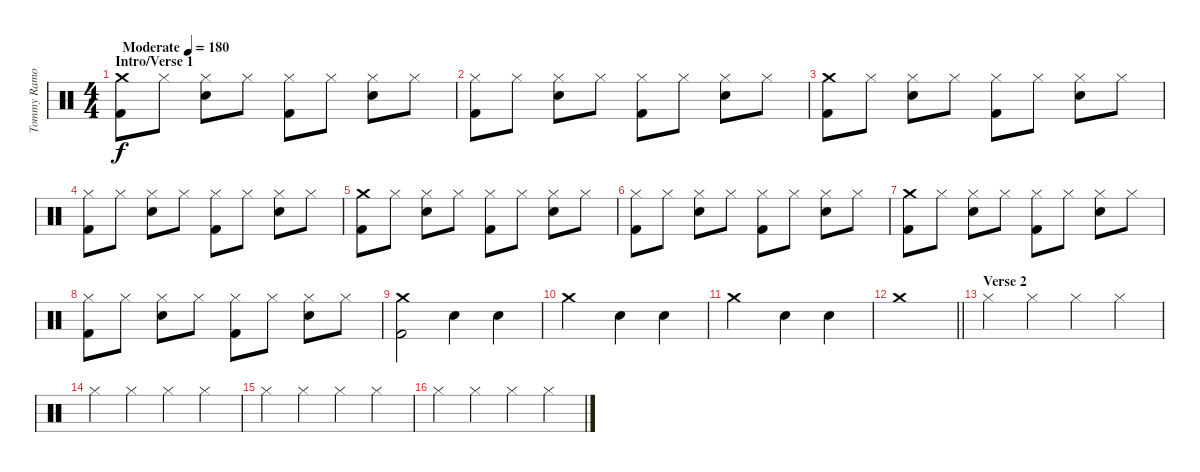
\track ("Tommy Ramone" "Tommy Ramo") {instrument percussion}
\staff {score}
\articulation defaults
\ts (4 4)
\section ("" "Intro/Verse 1")
\tempo (180 "Moderate")
\clef neutral
\ks c
("Crash medium (hit)" "Kick (hit) 2").8{dy f} "Hi-Hat (closed)".8 ("Hi-Hat (closed)" "Snare (hit) 2").8 "Hi-Hat (closed)".8 ("Hi-Hat (closed)" "Kick (hit) 2").8 "Hi-Hat (closed)".8 ("Hi-Hat (closed)" "Snare (hit) 2").8 "Hi-Hat (closed)".8 |
("Hi-Hat (closed)" "Kick (hit) 2").8 "Hi-Hat (closed)".8 ("Hi-Hat (closed)" "Snare (hit) 2").8 "Hi-Hat (closed)".8 ("Hi-Hat (closed)" "Kick (hit) 2").8 "Hi-Hat (closed)".8 ("Hi-Hat (closed)" "Snare (hit) 2").8 "Hi-Hat (closed)".8 |
("Crash medium (hit)" "Kick (hit) 2").8 "Hi-Hat (closed)".8 ("Hi-Hat (closed)" "Snare (hit) 2").8 "Hi-Hat (closed)".8 ("Hi-Hat (closed)" "Kick (hit) 2").8 "Hi-Hat (closed)".8 ("Hi-Hat (closed)" "Snare (hit) 2").8 "Hi-Hat (closed)".8 |
("Hi-Hat (closed)" "Kick (hit) 2").8 "Hi-Hat (closed)".8 ("Hi-Hat (closed)" "Snare (hit) 2").8 "Hi-Hat (closed)".8 ("Hi-Hat (closed)" "Kick (hit) 2").8 "Hi-Hat (closed)".8 ("Hi-Hat (closed)" "Snare (hit) 2").8 "Hi-Hat (closed)".8 |
("Crash medium (hit)" "Kick (hit) 2").8 "Hi-Hat (closed)".8 ("Hi-Hat (closed)" "Snare (hit) 2").8 "Hi-Hat (closed)".8 ("Hi-Hat (closed)" "Kick (hit) 2").8 "Hi-Hat (closed)".8 ("Hi-Hat (closed)" "Snare (hit) 2").8 "Hi-Hat (closed)".8 |
("Hi-Hat (closed)" "Kick (hit) 2").8 "Hi-Hat (closed)".8 ("Hi-Hat (closed)" "Snare (hit) 2").8 "Hi-Hat (closed)".8 ("Hi-Hat (closed)" "Kick (hit) 2").8 "Hi-Hat (closed)".8 ("Hi-Hat (closed)" "Snare (hit) 2").8 "Hi-Hat (closed)".8 |
("Crash medium (hit)" "Kick (hit) 2").8 "Hi-Hat (closed)".8 ("Hi-Hat (closed)" "Snare (hit) 2").8 "Hi-Hat (closed)".8 ("Hi-Hat (closed)" "Kick (hit) 2").8 "Hi-Hat (closed)".8 ("Hi-Hat (closed)" "Snare (hit) 2").8 "Hi-Hat (closed)".8 |
("Hi-Hat (closed)" "Kick (hit) 2").8 "Hi-Hat (closed)".8 ("Hi-Hat (closed)" "Snare (hit) 2").8 "Hi-Hat (closed)".8 ("Hi-Hat (closed)" "Kick (hit) 2").8 "Hi-Hat (closed)".8 ("Hi-Hat (closed)" "Snare (hit) 2").8 "Hi-Hat (closed)".8 |
("Crash medium (hit)" "Kick (hit) 2").2 "Snare (hit) 2".4 "Snare (hit) 2".4 |
"Crash medium (hit)".2 "Snare (hit) 2".4 "Snare (hit) 2".4 |
"Crash medium (hit)".2 "Snare (hit) 2".4 "Snare (hit) 2".4 |
\barLineRight lightlight "Crash medium (hit)".1
|
\section ("" "Verse 2")
"Hi-Hat (closed)".4 "Hi-Hat (closed)".4 "Hi-Hat (closed)".4 "Hi-Hat (closed)".4 |
"Hi-Hat (closed)".4 "Hi-Hat (closed)".4 "Hi-Hat (closed)".4 "Hi-Hat (closed)".4 |
"Hi-Hat (closed)".4 "Hi-Hat (closed)".4 "Hi-Hat (closed)".4 "Hi-Hat (closed)".4 |
"Hi-Hat (closed)".4 "Hi-Hat (closed)".4 "Hi-Hat (closed)".4 "Hi-Hat (closed)".4
